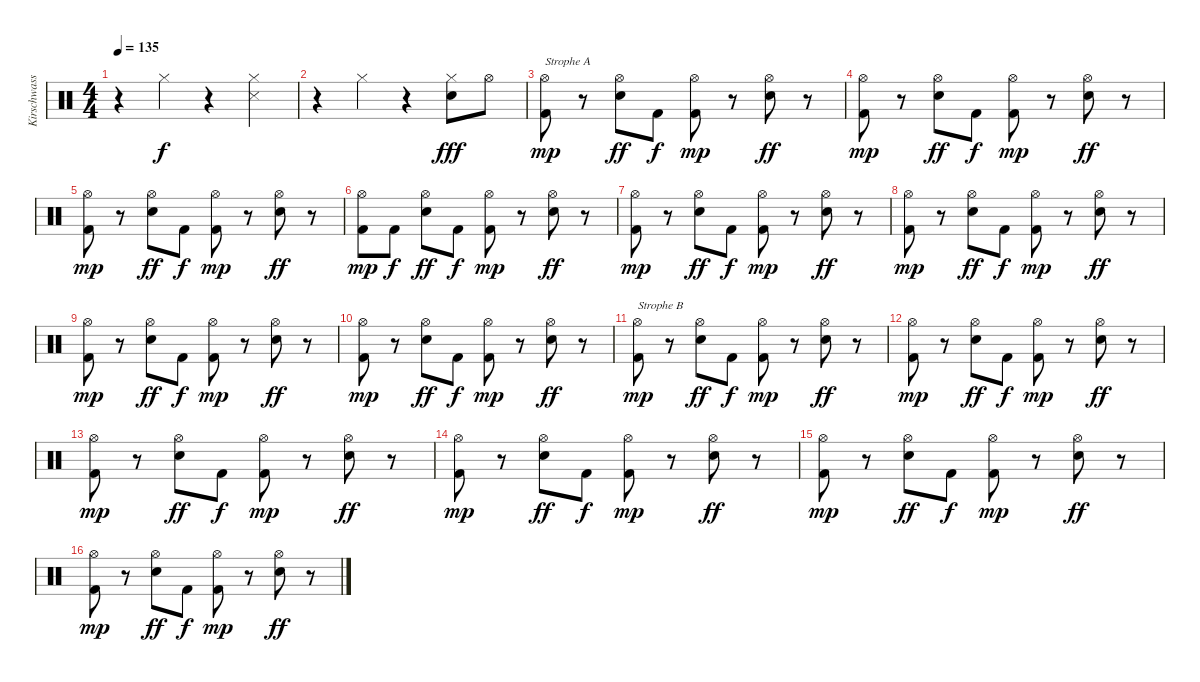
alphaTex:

\track ("Kirschwasserkönig" "Kirschwass") {instrument percussion}
\staff {score}
\articulation defaults
\ts (4 4)
\tempo 135
\clef neutral
\ks c
r.4{dy f} "Hi-Hat (closed)".4 r.4 ("Hi-Hat (closed)" "Snare (side stick) 3").4 |
r.4 "Hi-Hat (closed)".4 r.4 ("Hi-Hat (closed)" "Electric Snare (hit)").8{dy fff} "Hi-Hat (open)".8 |
("Hi-Hat (open)" "Kick (hit) 2").8{txt "Strophe A" dy mp} r.8 ("Hi-Hat (open)" "Electric Snare (hit)").8{dy ff} "Kick (hit) 2".8{dy f} ("Hi-Hat (open)" "Kick (hit) 2").8{dy mp} r.8 ("Hi-Hat (open)" "Electric Snare (hit)").8{dy ff} r.8 |
("Hi-Hat (open)" "Kick (hit) 2").8{dy mp} r.8 ("Hi-Hat (open)" "Electric Snare (hit)").8{dy ff} "Kick (hit) 2".8{dy f} ("Hi-Hat (open)" "Kick (hit) 2").8{dy mp} r.8 ("Hi-Hat (open)" "Electric Snare (hit)").8{dy ff} r.8 |
("Hi-Hat (open)" "Kick (hit) 2").8{dy mp} r.8 ("Hi-Hat (open)" "Electric Snare (hit)").8{dy ff} "Kick (hit) 2".8{dy f} ("Hi-Hat (open)" "Kick (hit) 2").8{dy mp} r.8 ("Hi-Hat (open)" "Electric Snare (hit)").8{dy ff} r.8 |
("Hi-Hat (open)" "Kick (hit) 2").8{dy mp} "Kick (hit) 2".8{dy f} ("Hi-Hat (open)" "Electric Snare (hit)").8{dy ff} "Kick (hit) 2".8{dy f} ("Hi-Hat (open)" "Kick (hit) 2").8{dy mp} r.8 ("Hi-Hat (open)" "Electric Snare (hit)").8{dy ff} r.8 |
("Hi-Hat (open)" "Kick (hit) 2").8{dy mp} r.8 ("Hi-Hat (open)" "Electric Snare (hit)").8{dy ff} "Kick (hit) 2".8{dy f} ("Hi-Hat (open)" "Kick (hit) 2").8{dy mp} r.8 ("Hi-Hat (open)" "Electric Snare (hit)").8{dy ff} r.8 |
("Hi-Hat (open)" "Kick (hit) 2").8{dy mp} r.8 ("Hi-Hat (open)" "Electric Snare (hit)").8{dy ff} "Kick (hit) 2".8{dy f} ("Hi-Hat (open)" "Kick (hit) 2").8{dy mp} r.8 ("Hi-Hat (open)" "Electric Snare (hit)").8{dy ff} r.8 |
("Hi-Hat (open)" "Kick (hit) 2").8{dy mp} r.8 ("Hi-Hat (open)" "Electric Snare (hit)").8{dy ff} "Kick (hit) 2".8{dy f} ("Hi-Hat (open)" "Kick (hit) 2").8{dy mp} r.8 ("Hi-Hat (open)" "Electric Snare (hit)").8{dy ff} r.8 |
("Hi-Hat (open)" "Kick (hit) 2").8{dy mp} r.8 ("Hi-Hat (open)" "Electric Snare (hit)").8{dy ff} "Kick (hit) 2".8{dy f} ("Hi-Hat (open)" "Kick (hit) 2").8{dy mp} r.8 ("Hi-Hat (open)" "Electric Snare (hit)").8{dy ff} r.8 |
("Hi-Hat (open)" "Kick (hit) 2").8{txt "Strophe B" dy mp} r.8 ("Hi-Hat (open)" "Electric Snare (hit)").8{dy ff} "Kick (hit) 2".8{dy f} ("Hi-Hat (open)" "Kick (hit) 2").8{dy mp} r.8 ("Hi-Hat (open)" "Electric Snare (hit)").8{dy ff} r.8 |
("Hi-Hat (open)" "Kick (hit) 2").8{dy mp} r.8 ("Hi-Hat (open)" "Electric Snare (hit)").8{dy ff} "Kick (hit) 2".8{dy f} ("Hi-Hat (open)" "Kick (hit) 2").8{dy mp} r.8 ("Hi-Hat (open)" "Electric Snare (hit)").8{dy ff} r.8 |
("Hi-Hat (open)" "Kick (hit) 2").8{dy mp} r.8 ("Hi-Hat (open)" "Electric Snare (hit)").8{dy ff} "Kick (hit) 2".8{dy f} ("Hi-Hat (open)" "Kick (hit) 2").8{dy mp} r.8 ("Hi-Hat (open)" "Electric Snare (hit)").8{dy ff} r.8 |
("Hi-Hat (open)" "Kick (hit) 2").8{dy mp} r.8 ("Hi-Hat (open)" "Electric Snare (hit)").8{dy ff} "Kick (hit) 2".8{dy f} ("Hi-Hat (open)" "Kick (hit) 2").8{dy mp} r.8 ("Hi-Hat (open)" "Electric Snare (hit)").8{dy ff} r.8 |
("Hi-Hat (open)" "Kick (hit) 2").8{dy mp} r.8 ("Hi-Hat (open)" "Electric Snare (hit)").8{dy ff} "Kick (hit) 2".8{dy f} ("Hi-Hat (open)" "Kick (hit) 2").8{dy mp} r.8 ("Hi-Hat (open)" "Electric Snare (hit)").8{dy ff} r.8 |
("Hi-Hat (open)" "Kick (hit) 2").8{dy mp} r.8 ("Hi-Hat (open)" "Electric Snare (hit)").8{dy ff} "Kick (hit) 2".8{dy f} ("Hi-Hat (open)" "Kick (hit) 2").8{dy mp} r.8 ("Hi-Hat (open)" "Electric Snare (hit)").8{dy ff} r.8
